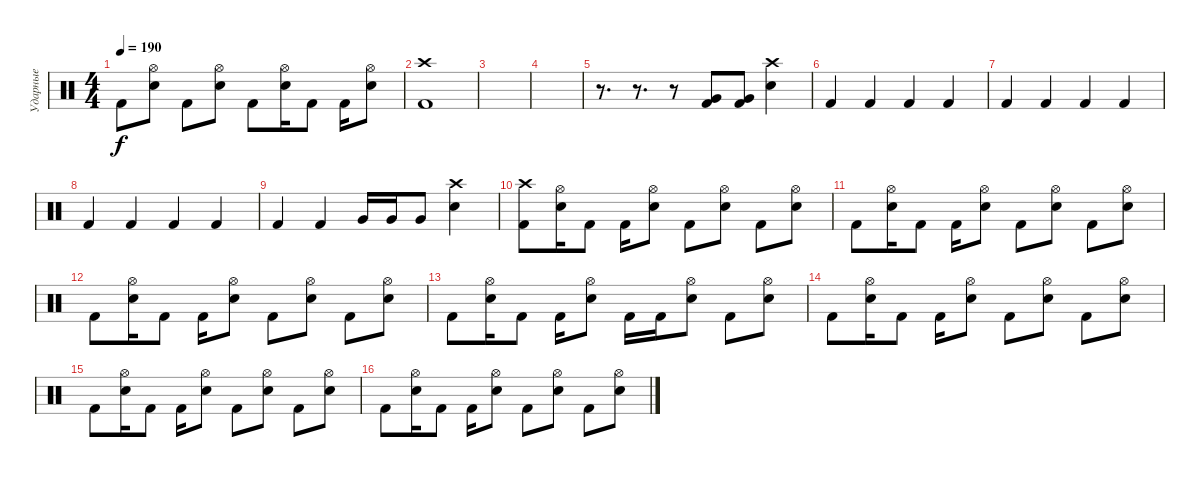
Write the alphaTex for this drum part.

\track ("Ударные" "Ударные") {instrument percussion}
\staff {score}
\articulation defaults
\ts (4 4)
\tempo 190
\clef neutral
\ks c "Kick (hit) 2".8{dy f}
("Hi-Hat (open)" "Electric Snare (hit)").8 "Kick (hit) 2".8 ("Hi-Hat (open)" "Electric Snare (hit)").8 "Kick (hit) 2".8 ("Hi-Hat (open)" "Electric Snare (hit)").16 "Kick (hit) 2".8 "Kick (hit) 2".16 ("Hi-Hat (open)" "Electric Snare (hit)").8 |
("Crash high (hit)" "Kick (hit) 2").1 |
|
|
r.8{d} r.8{d} r.8 ("Very Low Tom (hit)" "Kick (hit) 2").8 ("Very Low Tom (hit)" "Kick (hit) 2").8 ("Crash high (hit)" "Electric Snare (hit)").4 |
"Kick (hit) 2".4 "Kick (hit) 2".4 "Kick (hit) 2".4 "Kick (hit) 2".4 |
"Kick (hit) 2".4 "Kick (hit) 2".4 "Kick (hit) 2".4 "Kick (hit) 2".4 |
"Kick (hit) 2".4 "Kick (hit) 2".4 "Kick (hit) 2".4 "Kick (hit) 2".4 |
"Kick (hit) 2".4 "Kick (hit) 2".4 "Very Low Tom (hit)".16 "Very Low Tom (hit)".16 "Very Low Tom (hit)".8 ("Crash high (hit)" "Electric Snare (hit)").4 |
("Crash high (hit)" "Kick (hit) 2").8 ("Hi-Hat (open)" "Electric Snare (hit)").16 "Kick (hit) 2".8 "Kick (hit) 2".16 ("Hi-Hat (open)" "Electric Snare (hit)").8 "Kick (hit) 2".8 ("Hi-Hat (open)" "Electric Snare (hit)").8 "Kick (hit) 2".8 ("Hi-Hat (open)" "Electric Snare (hit)").8 |
"Kick (hit) 2".8 ("Hi-Hat (open)" "Electric Snare (hit)").16 "Kick (hit) 2".8 "Kick (hit) 2".16 ("Hi-Hat (open)" "Electric Snare (hit)").8 "Kick (hit) 2".8 ("Hi-Hat (open)" "Electric Snare (hit)").8 "Kick (hit) 2".8 ("Hi-Hat (open)" "Electric Snare (hit)").8 |
"Kick (hit) 2".8 ("Hi-Hat (open)" "Electric Snare (hit)").16 "Kick (hit) 2".8 "Kick (hit) 2".16 ("Hi-Hat (open)" "Electric Snare (hit)").8 "Kick (hit) 2".8 ("Hi-Hat (open)" "Electric Snare (hit)").8 "Kick (hit) 2".8 ("Hi-Hat (open)" "Electric Snare (hit)").8 |
"Kick (hit) 2".8 ("Hi-Hat (open)" "Electric Snare (hit)").16 "Kick (hit) 2".8 "Kick (hit) 2".16 ("Hi-Hat (open)" "Electric Snare (hit)").8 "Kick (hit) 2".16 "Kick (hit) 2".16 ("Hi-Hat (open)" "Electric Snare (hit)").8 "Kick (hit) 2".8 ("Hi-Hat (open)" "Electric Snare (hit)").8 |
"Kick (hit) 2".8 ("Hi-Hat (open)" "Electric Snare (hit)").16 "Kick (hit) 2".8 "Kick (hit) 2".16 ("Hi-Hat (open)" "Electric Snare (hit)").8 "Kick (hit) 2".8 ("Hi-Hat (open)" "Electric Snare (hit)").8 "Kick (hit) 2".8 ("Hi-Hat (open)" "Electric Snare (hit)").8 |
"Kick (hit) 2".8 ("Hi-Hat (open)" "Electric Snare (hit)").16 "Kick (hit) 2".8 "Kick (hit) 2".16 ("Hi-Hat (open)" "Electric Snare (hit)").8 "Kick (hit) 2".8 ("Hi-Hat (open)" "Electric Snare (hit)").8 "Kick (hit) 2".8 ("Hi-Hat (open)" "Electric Snare (hit)").8 |
"Kick (hit) 2".8 ("Hi-Hat (open)" "Electric Snare (hit)").16 "Kick (hit) 2".8 "Kick (hit) 2".16 ("Hi-Hat (open)" "Electric Snare (hit)").8 "Kick (hit) 2".8 ("Hi-Hat (open)" "Electric Snare (hit)").8 "Kick (hit) 2".8 ("Hi-Hat (open)" "Electric Snare (hit)").8
